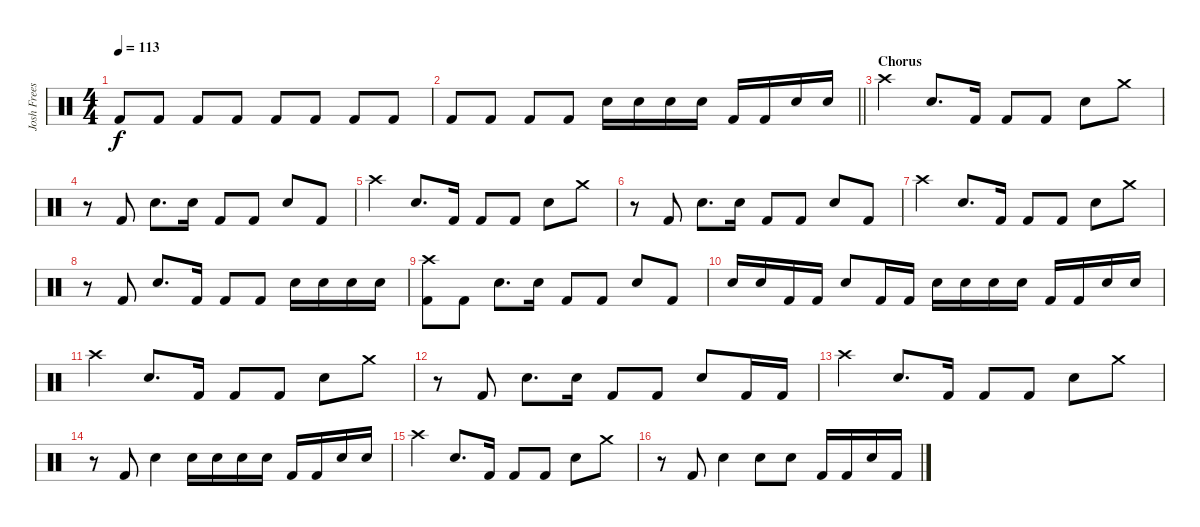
\track ("Josh Freese (Studio Drummer)" "Josh Frees") {instrument percussion}
\staff {score}
\articulation defaults
\ts (4 4)
\tempo 113
\clef neutral
\ks c "Kick (hit) 2".8{dy f} "Kick (hit) 2".8 "Kick (hit) 2".8 "Kick (hit) 2".8 "Kick (hit) 2".8 "Kick (hit) 2".8 "Kick (hit) 2".8 "Kick (hit) 2".8
|
\barLineRight lightlight "Kick (hit) 2".8 "Kick (hit) 2".8 "Kick (hit) 2".8 "Kick (hit) 2".8 "Electric Snare (hit)".16 "Electric Snare (hit)".16 "Snare (hit) 2".16 "Snare (hit) 2".16 "Kick (hit) 2".16 "Kick (hit) 2".16 "Snare (hit) 2".16 "Snare (hit) 2".16
|
\section ("" "Chorus")
"Crash high (hit)".4 "Electric Snare (hit)".8{d} "Kick (hit) 2".16 "Kick (hit) 2".8 "Kick (hit) 2".8 "Electric Snare (hit)".8 "Crash medium (hit)".8 |
r.8 "Kick (hit) 2".8 "Electric Snare (hit)".8{d} "Electric Snare (hit)".16 "Kick (hit) 2".8 "Kick (hit) 2".8 "Electric Snare (hit)".8 "Kick (hit) 2".8 |
"Crash high (hit)".4 "Electric Snare (hit)".8{d} "Kick (hit) 2".16 "Kick (hit) 2".8 "Kick (hit) 2".8 "Electric Snare (hit)".8 "Crash medium (hit)".8 |
r.8 "Kick (hit) 2".8 "Electric Snare (hit)".8{d} "Electric Snare (hit)".16 "Kick (hit) 2".8 "Kick (hit) 2".8 "Electric Snare (hit)".8 "Kick (hit) 2".8 |
"Crash high (hit)".4 "Electric Snare (hit)".8{d} "Kick (hit) 2".16 "Kick (hit) 2".8 "Kick (hit) 2".8 "Electric Snare (hit)".8 "Crash medium (hit)".8 |
r.8 "Kick (hit) 2".8 "Electric Snare (hit)".8{d} "Kick (hit) 2".16 "Kick (hit) 2".8 "Kick (hit) 2".8 "Electric Snare (hit)".16 "Electric Snare (hit)".16 "Electric Snare (hit)".16 "Electric Snare (hit)".16 |
("Crash high (hit)" "Kick (hit) 2").8 "Kick (hit) 2".8 "Electric Snare (hit)".8{d} "Electric Snare (hit)".16 "Kick (hit) 2".8 "Kick (hit) 2".8 "Electric Snare (hit)".8 "Kick (hit) 2".8 |
"Snare (hit) 2".16 "Snare (hit) 2".16 "Kick (hit) 2".16 "Kick (hit) 2".16 "Snare (hit) 2".8 "Kick (hit) 2".16 "Kick (hit) 2".16 "Snare (hit) 2".16 "Snare (hit) 2".16 "Snare (hit) 2".16 "Snare (hit) 2".16 "Kick (hit) 2".16 "Kick (hit) 2".16 "Electric Snare (hit)".16 "Electric Snare (hit)".16 |
"Crash high (hit)".4 "Electric Snare (hit)".8{d} "Kick (hit) 2".16 "Kick (hit) 2".8 "Kick (hit) 2".8 "Electric Snare (hit)".8 "Crash medium (hit)".8 |
r.8 "Kick (hit) 2".8 "Electric Snare (hit)".8{d} "Electric Snare (hit)".16 "Kick (hit) 2".8 "Kick (hit) 2".8 "Electric Snare (hit)".8 "Kick (hit) 2".16 "Kick (hit) 2".16 |
"Crash high (hit)".4 "Electric Snare (hit)".8{d} "Kick (hit) 2".16 "Kick (hit) 2".8 "Kick (hit) 2".8 "Electric Snare (hit)".8 "Crash medium (hit)".8 |
r.8 "Kick (hit) 2".8 "Electric Snare (hit)".4 "Snare (hit) 2".16 "Snare (hit) 2".16 "Electric Snare (hit)".16 "Electric Snare (hit)".16 "Kick (hit) 2".16 "Kick (hit) 2".16 "Electric Snare (hit)".16 "Electric Snare (hit)".16 |
"Crash high (hit)".4 "Electric Snare (hit)".8{d} "Kick (hit) 2".16 "Kick (hit) 2".8 "Kick (hit) 2".8 "Electric Snare (hit)".8 "Crash medium (hit)".8 |
r.8 "Kick (hit) 2".8 "Electric Snare (hit)".4 "Electric Snare (hit)".8 "Electric Snare (hit)".8 "Kick (hit) 2".16 "Kick (hit) 2".16 "Electric Snare (hit)".16 "Kick (hit) 2".16
